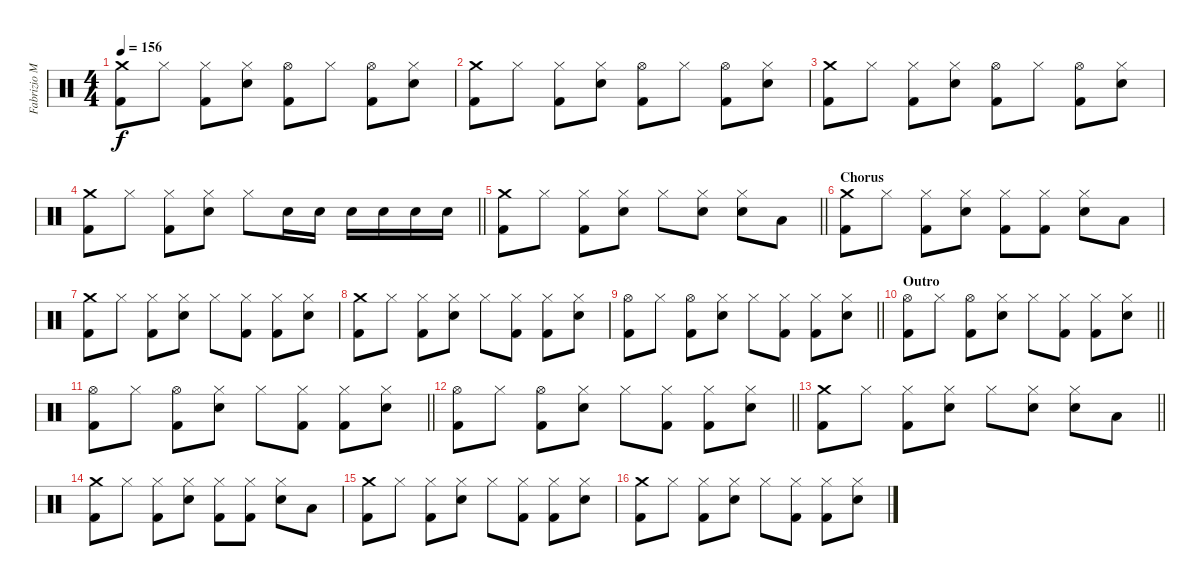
\track ("Fabrizio Moretti (Drums)" "Fabrizio M") {instrument percussion}
\staff {score}
\articulation defaults
\ts (4 4)
\tempo 156
\clef neutral
\ks c
("Crash medium (hit)" "Kick (hit) 2").8{dy f} "Hi-Hat (closed)".8 ("Hi-Hat (closed)" "Kick (hit) 2").8 ("Hi-Hat (closed)" "Snare (hit) 2").8 ("Hi-Hat (open)" "Kick (hit) 2").8 "Hi-Hat (closed)".8 ("Hi-Hat (open)" "Kick (hit) 2").8 ("Hi-Hat (closed)" "Snare (hit) 2").8 |
("Crash medium (hit)" "Kick (hit) 2").8 "Hi-Hat (closed)".8 ("Hi-Hat (closed)" "Kick (hit) 2").8 ("Hi-Hat (closed)" "Snare (hit) 2").8 ("Hi-Hat (open)" "Kick (hit) 2").8 "Hi-Hat (closed)".8 ("Hi-Hat (open)" "Kick (hit) 2").8 ("Hi-Hat (closed)" "Snare (hit) 2").8 |
("Crash medium (hit)" "Kick (hit) 2").8 "Hi-Hat (closed)".8 ("Hi-Hat (closed)" "Kick (hit) 2").8 ("Hi-Hat (closed)" "Snare (hit) 2").8 ("Hi-Hat (open)" "Kick (hit) 2").8 "Hi-Hat (closed)".8 ("Hi-Hat (open)" "Kick (hit) 2").8 ("Hi-Hat (closed)" "Snare (hit) 2").8 |
\barLineRight lightlight
("Crash medium (hit)" "Kick (hit) 2").8 "Hi-Hat (closed)".8 ("Hi-Hat (closed)" "Kick (hit) 2").8 ("Hi-Hat (closed)" "Snare (hit) 2").8 "Hi-Hat (closed)".8 "Snare (hit) 2".16 "Snare (hit) 2".16 "Snare (hit) 2".16 "Snare (hit) 2".16 "Snare (hit) 2".16 "Snare (hit) 2".16 |
\barLineRight lightlight
("Crash medium (hit)" "Kick (hit) 2").8 "Hi-Hat (closed)".8 ("Hi-Hat (closed)" "Kick (hit) 2").8 ("Hi-Hat (closed)" "Snare (hit) 2").8 "Hi-Hat (closed)".8 ("Hi-Hat (closed)" "Snare (hit) 2").8 ("Hi-Hat (closed)" "Snare (hit) 2").8 "Low Tom (hit)".8 |
\section ("" "Chorus")
("Crash medium (hit)" "Kick (hit) 2").8 "Hi-Hat (closed)".8 ("Hi-Hat (closed)" "Kick (hit) 2").8 ("Hi-Hat (closed)" "Snare (hit) 2").8 ("Hi-Hat (closed)" "Kick (hit) 2").8 ("Hi-Hat (closed)" "Kick (hit) 2").8 ("Hi-Hat (closed)" "Snare (hit) 2").8 "Low Tom (hit)".8 |
("Crash medium (hit)" "Kick (hit) 2").8 "Hi-Hat (closed)".8 ("Hi-Hat (closed)" "Kick (hit) 2").8 ("Hi-Hat (closed)" "Snare (hit) 2").8 "Hi-Hat (closed)".8 ("Hi-Hat (closed)" "Kick (hit) 2").8 ("Hi-Hat (closed)" "Kick (hit) 2").8 ("Hi-Hat (closed)" "Snare (hit) 2").8 |
("Crash medium (hit)" "Kick (hit) 2").8 "Hi-Hat (closed)".8 ("Hi-Hat (closed)" "Kick (hit) 2").8 ("Hi-Hat (closed)" "Snare (hit) 2").8 "Hi-Hat (closed)".8 ("Hi-Hat (closed)" "Kick (hit) 2").8 ("Hi-Hat (closed)" "Kick (hit) 2").8 ("Hi-Hat (closed)" "Snare (hit) 2").8 |
\barLineRight lightlight
("Hi-Hat (open)" "Kick (hit) 2").8 "Hi-Hat (closed)".8 ("Hi-Hat (open)" "Kick (hit) 2").8 ("Hi-Hat (closed)" "Snare (hit) 2").8 "Hi-Hat (closed)".8 ("Hi-Hat (closed)" "Kick (hit) 2").8 ("Hi-Hat (closed)" "Kick (hit) 2").8 ("Hi-Hat (closed)" "Snare (hit) 2").8 |
\section ("" "Outro")
\barLineRight lightlight
("Hi-Hat (open)" "Kick (hit) 2").8 "Hi-Hat (closed)".8 ("Hi-Hat (open)" "Kick (hit) 2").8 ("Hi-Hat (closed)" "Snare (hit) 2").8 "Hi-Hat (closed)".8 ("Hi-Hat (closed)" "Kick (hit) 2").8 ("Hi-Hat (closed)" "Kick (hit) 2").8 ("Hi-Hat (closed)" "Snare (hit) 2").8 |
\barLineRight lightlight
("Hi-Hat (open)" "Kick (hit) 2").8 "Hi-Hat (closed)".8 ("Hi-Hat (open)" "Kick (hit) 2").8 ("Hi-Hat (closed)" "Snare (hit) 2").8 "Hi-Hat (closed)".8 ("Hi-Hat (closed)" "Kick (hit) 2").8 ("Hi-Hat (closed)" "Kick (hit) 2").8 ("Hi-Hat (closed)" "Snare (hit) 2").8 |
\barLineRight lightlight
("Hi-Hat (open)" "Kick (hit) 2").8 "Hi-Hat (closed)".8 ("Hi-Hat (open)" "Kick (hit) 2").8 ("Hi-Hat (closed)" "Snare (hit) 2").8 "Hi-Hat (closed)".8 ("Hi-Hat (closed)" "Kick (hit) 2").8 ("Hi-Hat (closed)" "Kick (hit) 2").8 ("Hi-Hat (closed)" "Snare (hit) 2").8 |
\barLineRight lightlight
("Crash medium (hit)" "Kick (hit) 2").8 "Hi-Hat (closed)".8 ("Hi-Hat (closed)" "Kick (hit) 2").8 ("Hi-Hat (closed)" "Snare (hit) 2").8 "Hi-Hat (closed)".8 ("Hi-Hat (closed)" "Snare (hit) 2").8 ("Hi-Hat (closed)" "Snare (hit) 2").8 "Low Tom (hit)".8 |
("Crash medium (hit)" "Kick (hit) 2").8 "Hi-Hat (closed)".8 ("Hi-Hat (closed)" "Kick (hit) 2").8 ("Hi-Hat (closed)" "Snare (hit) 2").8 ("Hi-Hat (closed)" "Kick (hit) 2").8 ("Hi-Hat (closed)" "Kick (hit) 2").8 ("Hi-Hat (closed)" "Snare (hit) 2").8 "Low Tom (hit)".8 |
("Crash medium (hit)" "Kick (hit) 2").8 "Hi-Hat (closed)".8 ("Hi-Hat (closed)" "Kick (hit) 2").8 ("Hi-Hat (closed)" "Snare (hit) 2").8 "Hi-Hat (closed)".8 ("Hi-Hat (closed)" "Kick (hit) 2").8 ("Hi-Hat (closed)" "Kick (hit) 2").8 ("Hi-Hat (closed)" "Snare (hit) 2").8 |
("Crash medium (hit)" "Kick (hit) 2").8 "Hi-Hat (closed)".8 ("Hi-Hat (closed)" "Kick (hit) 2").8 ("Hi-Hat (closed)" "Snare (hit) 2").8 "Hi-Hat (closed)".8 ("Hi-Hat (closed)" "Kick (hit) 2").8 ("Hi-Hat (closed)" "Kick (hit) 2").8 ("Hi-Hat (closed)" "Snare (hit) 2").8
